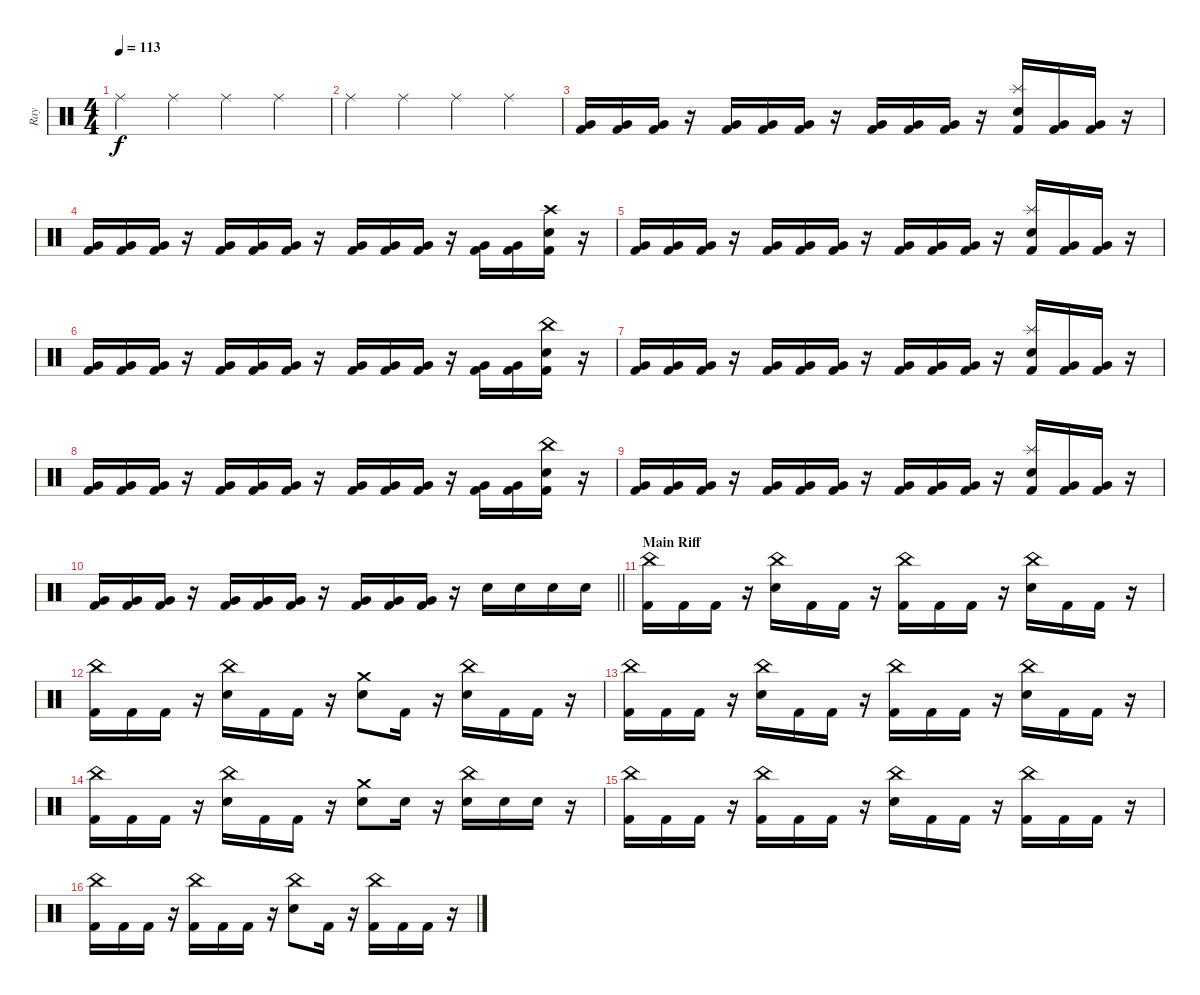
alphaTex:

\track ("Ray" "Ray") {instrument percussion}
\staff {score}
\articulation defaults
\ts (4 4)
\tempo 113
\clef neutral
\ks c "Ride (middle)".4{dy f} "Ride (middle)".4 "Ride (middle)".4 "Ride (middle)".4
|
"Ride (middle)".4 "Ride (middle)".4 "Ride (middle)".4 "Ride (middle)".4 |
("Kick (hit) 2" "Very Low Tom (hit)").16 ("Kick (hit) 2" "Very Low Tom (hit)").16 ("Kick (hit) 2" "Very Low Tom (hit)").16 r.16 ("Kick (hit) 2" "Very Low Tom (hit)").16 ("Kick (hit) 2" "Very Low Tom (hit)").16 ("Kick (hit) 2" "Very Low Tom (hit)").16 r.16 ("Kick (hit) 2" "Very Low Tom (hit)").16 ("Kick (hit) 2" "Very Low Tom (hit)").16 ("Kick (hit) 2" "Very Low Tom (hit)").16 r.16 ("Splash (hit)" "Electric Snare (hit)" "Kick (hit) 2").16 ("Kick (hit) 2" "Very Low Tom (hit)").16 ("Kick (hit) 2" "Very Low Tom (hit)").16 r.16 |
("Kick (hit) 2" "Very Low Tom (hit)").16 ("Kick (hit) 2" "Very Low Tom (hit)").16 ("Kick (hit) 2" "Very Low Tom (hit)").16 r.16 ("Kick (hit) 2" "Very Low Tom (hit)").16 ("Kick (hit) 2" "Very Low Tom (hit)").16 ("Kick (hit) 2" "Very Low Tom (hit)").16 r.16 ("Kick (hit) 2" "Very Low Tom (hit)").16 ("Kick (hit) 2" "Very Low Tom (hit)").16 ("Kick (hit) 2" "Very Low Tom (hit)").16 r.16 ("Kick (hit) 2" "Very Low Tom (hit)").16 ("Kick (hit) 2" "Very Low Tom (hit)").16 ("Crash high (hit)" "Electric Snare (hit)" "Kick (hit) 2").16 r.16 |
("Kick (hit) 2" "Very Low Tom (hit)").16 ("Kick (hit) 2" "Very Low Tom (hit)").16 ("Kick (hit) 2" "Very Low Tom (hit)").16 r.16 ("Kick (hit) 2" "Very Low Tom (hit)").16 ("Kick (hit) 2" "Very Low Tom (hit)").16 ("Kick (hit) 2" "Very Low Tom (hit)").16 r.16 ("Kick (hit) 2" "Very Low Tom (hit)").16 ("Kick (hit) 2" "Very Low Tom (hit)").16 ("Kick (hit) 2" "Very Low Tom (hit)").16 r.16 ("Splash (hit)" "Electric Snare (hit)" "Kick (hit) 2").16 ("Kick (hit) 2" "Very Low Tom (hit)").16 ("Kick (hit) 2" "Very Low Tom (hit)").16 r.16 |
("Kick (hit) 2" "Very Low Tom (hit)").16 ("Kick (hit) 2" "Very Low Tom (hit)").16 ("Kick (hit) 2" "Very Low Tom (hit)").16 r.16 ("Kick (hit) 2" "Very Low Tom (hit)").16 ("Kick (hit) 2" "Very Low Tom (hit)").16 ("Kick (hit) 2" "Very Low Tom (hit)").16 r.16 ("Kick (hit) 2" "Very Low Tom (hit)").16 ("Kick (hit) 2" "Very Low Tom (hit)").16 ("Kick (hit) 2" "Very Low Tom (hit)").16 r.16 ("Kick (hit) 2" "Very Low Tom (hit)").16 ("Kick (hit) 2" "Very Low Tom (hit)").16 ("China (hit)" "Electric Snare (hit)" "Kick (hit) 2").16 r.16 |
("Kick (hit) 2" "Very Low Tom (hit)").16 ("Kick (hit) 2" "Very Low Tom (hit)").16 ("Kick (hit) 2" "Very Low Tom (hit)").16 r.16 ("Kick (hit) 2" "Very Low Tom (hit)").16 ("Kick (hit) 2" "Very Low Tom (hit)").16 ("Kick (hit) 2" "Very Low Tom (hit)").16 r.16 ("Kick (hit) 2" "Very Low Tom (hit)").16 ("Kick (hit) 2" "Very Low Tom (hit)").16 ("Kick (hit) 2" "Very Low Tom (hit)").16 r.16 ("Splash (hit)" "Electric Snare (hit)" "Kick (hit) 2").16 ("Kick (hit) 2" "Very Low Tom (hit)").16 ("Kick (hit) 2" "Very Low Tom (hit)").16 r.16 |
("Kick (hit) 2" "Very Low Tom (hit)").16 ("Kick (hit) 2" "Very Low Tom (hit)").16 ("Kick (hit) 2" "Very Low Tom (hit)").16 r.16 ("Kick (hit) 2" "Very Low Tom (hit)").16 ("Kick (hit) 2" "Very Low Tom (hit)").16 ("Kick (hit) 2" "Very Low Tom (hit)").16 r.16 ("Kick (hit) 2" "Very Low Tom (hit)").16 ("Kick (hit) 2" "Very Low Tom (hit)").16 ("Kick (hit) 2" "Very Low Tom (hit)").16 r.16 ("Kick (hit) 2" "Very Low Tom (hit)").16 ("Kick (hit) 2" "Very Low Tom (hit)").16 ("China (hit)" "Electric Snare (hit)" "Kick (hit) 2").16 r.16 |
("Kick (hit) 2" "Very Low Tom (hit)").16 ("Kick (hit) 2" "Very Low Tom (hit)").16 ("Kick (hit) 2" "Very Low Tom (hit)").16 r.16 ("Kick (hit) 2" "Very Low Tom (hit)").16 ("Kick (hit) 2" "Very Low Tom (hit)").16 ("Kick (hit) 2" "Very Low Tom (hit)").16 r.16 ("Kick (hit) 2" "Very Low Tom (hit)").16 ("Kick (hit) 2" "Very Low Tom (hit)").16 ("Kick (hit) 2" "Very Low Tom (hit)").16 r.16 ("Splash (hit)" "Electric Snare (hit)" "Kick (hit) 2").16 ("Kick (hit) 2" "Very Low Tom (hit)").16 ("Kick (hit) 2" "Very Low Tom (hit)").16 r.16 |
\barLineRight lightlight
("Kick (hit) 2" "Very Low Tom (hit)").16 ("Kick (hit) 2" "Very Low Tom (hit)").16 ("Kick (hit) 2" "Very Low Tom (hit)").16 r.16 ("Kick (hit) 2" "Very Low Tom (hit)").16 ("Kick (hit) 2" "Very Low Tom (hit)").16 ("Kick (hit) 2" "Very Low Tom (hit)").16 r.16 ("Kick (hit) 2" "Very Low Tom (hit)").16 ("Kick (hit) 2" "Very Low Tom (hit)").16 ("Kick (hit) 2" "Very Low Tom (hit)").16 r.16 "Electric Snare (hit)".16 "Electric Snare (hit)".16 "Electric Snare (hit)".16 "Electric Snare (hit)".16 |
\section ("" "Main Riff")
("China (hit)" "Kick (hit) 2").16 "Kick (hit) 2".16 "Kick (hit) 2".16 r.16 ("China (hit)" "Electric Snare (hit)").16 "Kick (hit) 2".16 "Kick (hit) 2".16 r.16 ("China (hit)" "Kick (hit) 2").16 "Kick (hit) 2".16 "Kick (hit) 2".16 r.16 ("China (hit)" "Electric Snare (hit)").16 "Kick (hit) 2".16 "Kick (hit) 2".16 r.16 |
("China (hit)" "Kick (hit) 2").16 "Kick (hit) 2".16 "Kick (hit) 2".16 r.16 ("China (hit)" "Electric Snare (hit)").16 "Kick (hit) 2".16 "Kick (hit) 2".16 r.16 ("Crash medium (hit)" "Electric Snare (hit)").8 "Kick (hit) 2".16 r.16 ("China (hit)" "Electric Snare (hit)").16 "Kick (hit) 2".16 "Kick (hit) 2".16 r.16 |
("China (hit)" "Kick (hit) 2").16 "Kick (hit) 2".16 "Kick (hit) 2".16 r.16 ("China (hit)" "Electric Snare (hit)").16 "Kick (hit) 2".16 "Kick (hit) 2".16 r.16 ("China (hit)" "Kick (hit) 2").16 "Kick (hit) 2".16 "Kick (hit) 2".16 r.16 ("China (hit)" "Electric Snare (hit)").16 "Kick (hit) 2".16 "Kick (hit) 2".16 r.16 |
("China (hit)" "Kick (hit) 2").16 "Kick (hit) 2".16 "Kick (hit) 2".16 r.16 ("China (hit)" "Electric Snare (hit)").16 "Kick (hit) 2".16 "Kick (hit) 2".16 r.16 ("Crash medium (hit)" "Electric Snare (hit)").8 "Electric Snare (hit)".16 r.16 ("China (hit)" "Electric Snare (hit)").16 "Electric Snare (hit)".16 "Electric Snare (hit)".16 r.16 |
("China (hit)" "Kick (hit) 2").16 "Kick (hit) 2".16 "Kick (hit) 2".16 r.16 ("China (hit)" "Kick (hit) 2").16 "Kick (hit) 2".16 "Kick (hit) 2".16 r.16 ("China (hit)" "Electric Snare (hit)").16 "Kick (hit) 2".16 "Kick (hit) 2".16 r.16 ("China (hit)" "Kick (hit) 2").16 "Kick (hit) 2".16 "Kick (hit) 2".16 r.16 |
("China (hit)" "Kick (hit) 2").16 "Kick (hit) 2".16 "Kick (hit) 2".16 r.16 ("China (hit)" "Kick (hit) 2").16 "Kick (hit) 2".16 "Kick (hit) 2".16 r.16 ("China (hit)" "Electric Snare (hit)").8 "Kick (hit) 2".16 r.16 ("China (hit)" "Kick (hit) 2").16 "Kick (hit) 2".16 "Kick (hit) 2".16 r.16
